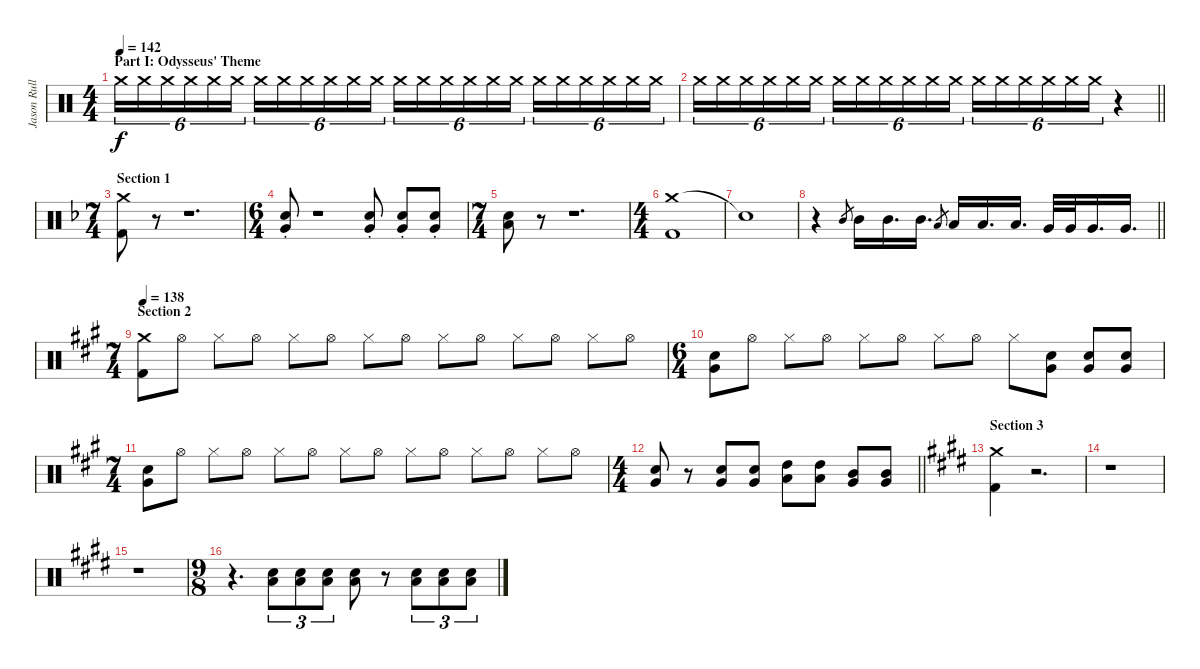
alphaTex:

\track ("Jason Rullo (drums)" "Jason Rull") {instrument percussion}
\staff {score}
\articulation defaults
\ts (4 4)
\section ("" "Part I: Odysseus' Theme")
\tempo 142
\clef neutral
\ks c "Crash medium (hit)".16{tu (6 4) dy f} "Crash medium (hit)".16{tu (6 4) volume 0} "Crash medium (hit)".16{tu (6 4) volume 0} "Crash medium (hit)".16{tu (6 4) volume 1} "Crash medium (hit)".16{tu (6 4) volume 1} "Crash medium (hit)".16{tu (6 4) volume 1} "Crash medium (hit)".16{tu (6 4) volume 2} "Crash medium (hit)".16{tu (6 4) volume 2} "Crash medium (hit)".16{tu (6 4) volume 2} "Crash medium (hit)".16{tu (6 4) volume 2} "Crash medium (hit)".16{tu (6 4) volume 2} "Crash medium (hit)".16{tu (6 4) volume 3} "Crash medium (hit)".16{tu (6 4) volume 3} "Crash medium (hit)".16{tu (6 4) volume 3} "Crash medium (hit)".16{tu (6 4) volume 4} "Crash medium (hit)".16{tu (6 4) volume 4} "Crash medium (hit)".16{tu (6 4) volume 4} "Crash medium (hit)".16{tu (6 4) volume 4} "Crash medium (hit)".16{tu (6 4) volume 5} "Crash medium (hit)".16{tu (6 4) volume 5} "Crash medium (hit)".16{tu (6 4) volume 5} "Crash medium (hit)".16{tu (6 4) volume 5} "Crash medium (hit)".16{tu (6 4) volume 6} "Crash medium (hit)".16{tu (6 4) volume 6}
|
\barLineRight lightlight "Crash medium (hit)".16{tu (6 4) volume 6} "Crash medium (hit)".16{tu (6 4) volume 6} "Crash medium (hit)".16{tu (6 4) volume 7} "Crash medium (hit)".16{tu (6 4) volume 7} "Crash medium (hit)".16{tu (6 4) volume 7} "Crash medium (hit)".16{tu (6 4) volume 8} "Crash medium (hit)".16{tu (6 4) volume 8} "Crash medium (hit)".16{tu (6 4) volume 8} "Crash medium (hit)".16{tu (6 4) volume 8} "Crash medium (hit)".16{tu (6 4) volume 8} "Crash medium (hit)".16{tu (6 4) volume 9} "Crash medium (hit)".16{tu (6 4) volume 9} "Crash medium (hit)".16{tu (6 4) volume 9} "Crash medium (hit)".16{tu (6 4) volume 10} "Crash medium (hit)".16{tu (6 4) volume 10} "Crash medium (hit)".16{tu (6 4) volume 10} "Crash medium (hit)".16{tu (6 4) volume 10} "Crash medium (hit)".16{tu (6 4) volume 11}
r.4 |
\ts (7 4)
\section ("" "Section 1")
\ks dminor
("Crash medium (hit)" "Kick (hit) 2").8{volume 15 balance 8} r.8 r.1{d} |
\ts (6 4)
("Very Low Tom (hit)"{st} "Electric Snare (hit)"{st}).8 r.1 ("Very Low Tom (hit)"{st} "Electric Snare (hit)"{st}).8 ("Very Low Tom (hit)"{st} "Electric Snare (hit)"{st}).8 ("Very Low Tom (hit)"{st} "Electric Snare (hit)"{st}).8 |
\ts (7 4)
("Low Tom (hit)" "Electric Snare (hit)").8 r.8 r.1{d} |
\ts (4 4)
("Crash medium (hit)" "Kick (hit) 2").1 |
"Snare (hit)"{t}.1 |
\barLineRight lightlight
r.4 "Mid Tom (hit)".8{gr} "Mid Tom (hit)".16 "Mid Tom (hit)".16{d} "Mid Tom (hit)".16{d} "Low Tom (hit)".8{gr} "Low Tom (hit)".16 "Low Tom (hit)".16{d} "Low Tom (hit)".16{d} "Very Low Tom (hit)".32 "Very Low Tom (hit)".32 "Very Low Tom (hit)".16{d} "Very Low Tom (hit)".16{d} |
\ts (7 4)
\section ("" "Section 2")
\tempo 138
\ks f#minor
("Crash medium (hit)" "Kick (hit) 2").8 "Hi-Hat (open)".8 "Hi-Hat (closed)".8 "Hi-Hat (open)".8 "Hi-Hat (closed)".8 "Hi-Hat (open)".8 "Hi-Hat (closed)".8 "Hi-Hat (open)".8 "Hi-Hat (closed)".8 "Hi-Hat (open)".8 "Hi-Hat (closed)".8 "Hi-Hat (open)".8 "Hi-Hat (closed)".8 "Hi-Hat (open)".8 |
\ts (6 4)
("Very Low Tom (hit)" "Electric Snare (hit)").8 "Hi-Hat (open)".8 "Hi-Hat (closed)".8 "Hi-Hat (open)".8 "Hi-Hat (closed)".8 "Hi-Hat (open)".8 "Hi-Hat (closed)".8 "Hi-Hat (open)".8 "Hi-Hat (closed)".8 ("Very Low Tom (hit)" "Electric Snare (hit)").8 ("Very Low Tom (hit)" "Electric Snare (hit)").8 ("Very Low Tom (hit)" "Electric Snare (hit)").8 |
\ts (7 4)
("Electric Snare (hit)" "Very Low Tom (hit)").8 "Hi-Hat (open)".8 "Hi-Hat (closed)".8 "Hi-Hat (open)".8 "Hi-Hat (closed)".8 "Hi-Hat (open)".8 "Hi-Hat (closed)".8 "Hi-Hat (open)".8 "Hi-Hat (closed)".8 "Hi-Hat (open)".8 "Hi-Hat (closed)".8 "Hi-Hat (open)".8 "Hi-Hat (closed)".8 "Hi-Hat (open)".8 |
\ts (4 4)
\barLineRight lightlight
("Very Low Tom (hit)" "Electric Snare (hit)").8 r.8 ("Very Low Tom (hit)" "Electric Snare (hit)").8 ("Very Low Tom (hit)" "Electric Snare (hit)").8 ("High Tom (hit)" "Low Tom (hit)").8 ("High Tom (hit)" "Low Tom (hit)").8 ("Mid Tom (hit)" "Very Low Tom (hit)").8 ("Mid Tom (hit)" "Very Low Tom (hit)").8 |
\section ("" "Section 3")
\ks c#minor
("Crash medium (hit)" "Kick (hit) 2").4 r.2{d} |
r.1 |
r.1 |
\ts (9 8)
r.4{d} ("Low Tom (hit)" "Electric Snare (hit)").8{tu (3 2)} ("Low Tom (hit)" "Electric Snare (hit)").8{tu (3 2)} ("Low Tom (hit)" "Electric Snare (hit)").8{tu (3 2)} ("Low Tom (hit)" "Electric Snare (hit)").8 r.8 ("Low Tom (hit)" "Electric Snare (hit)").8{tu (3 2)} ("Low Tom (hit)" "Electric Snare (hit)").8{tu (3 2)} ("Low Tom (hit)" "Electric Snare (hit)").8{tu (3 2)}
